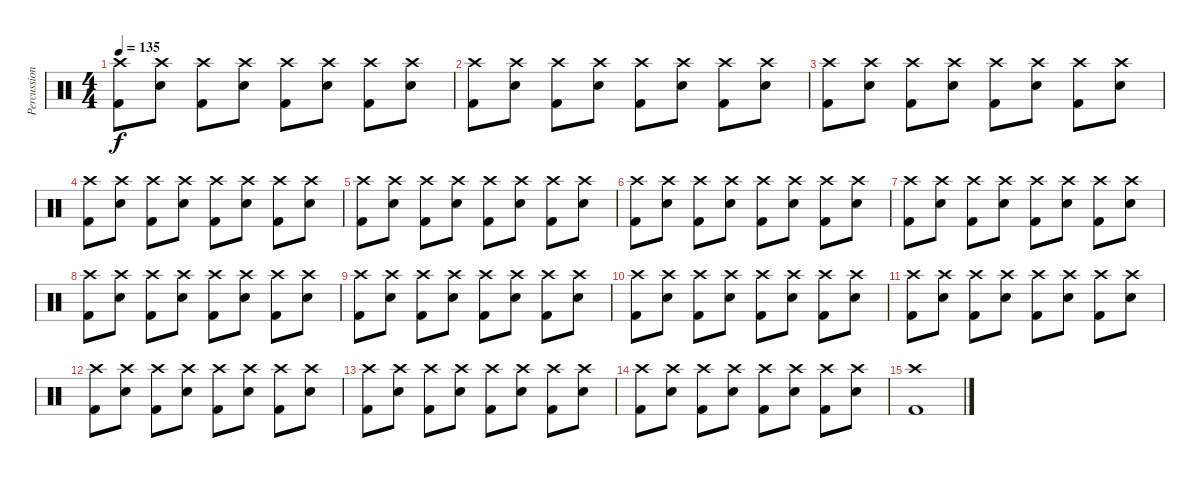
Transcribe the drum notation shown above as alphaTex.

\track ("Percussion" "Percussion") {instrument percussion}
\staff {score}
\articulation defaults
\ts (4 4)
\tempo 135
\clef neutral
\ks c
("Crash high (hit)" "Kick (hit) 2").8{dy f} ("Crash high (hit)" "Electric Snare (hit)").8 ("Crash high (hit)" "Kick (hit) 2").8 ("Crash high (hit)" "Electric Snare (hit)").8 ("Crash high (hit)" "Kick (hit) 2").8 ("Crash high (hit)" "Electric Snare (hit)").8 ("Crash high (hit)" "Kick (hit) 2").8 ("Crash high (hit)" "Electric Snare (hit)").8 |
("Crash high (hit)" "Kick (hit) 2").8 ("Crash high (hit)" "Electric Snare (hit)").8 ("Crash high (hit)" "Kick (hit) 2").8 ("Crash high (hit)" "Electric Snare (hit)").8 ("Crash high (hit)" "Kick (hit) 2").8 ("Crash high (hit)" "Electric Snare (hit)").8 ("Crash high (hit)" "Kick (hit) 2").8 ("Crash high (hit)" "Electric Snare (hit)").8 |
("Crash high (hit)" "Kick (hit) 2").8 ("Crash high (hit)" "Electric Snare (hit)").8 ("Crash high (hit)" "Kick (hit) 2").8 ("Crash high (hit)" "Electric Snare (hit)").8 ("Crash high (hit)" "Kick (hit) 2").8 ("Crash high (hit)" "Electric Snare (hit)").8 ("Crash high (hit)" "Kick (hit) 2").8 ("Crash high (hit)" "Electric Snare (hit)").8 |
("Crash high (hit)" "Kick (hit) 2").8 ("Crash high (hit)" "Electric Snare (hit)").8 ("Crash high (hit)" "Kick (hit) 2").8 ("Crash high (hit)" "Electric Snare (hit)").8 ("Crash high (hit)" "Kick (hit) 2").8 ("Crash high (hit)" "Electric Snare (hit)").8 ("Crash high (hit)" "Kick (hit) 2").8 ("Crash high (hit)" "Electric Snare (hit)").8 |
("Crash high (hit)" "Kick (hit) 2").8 ("Crash high (hit)" "Electric Snare (hit)").8 ("Crash high (hit)" "Kick (hit) 2").8 ("Crash high (hit)" "Electric Snare (hit)").8 ("Crash high (hit)" "Kick (hit) 2").8 ("Crash high (hit)" "Electric Snare (hit)").8 ("Crash high (hit)" "Kick (hit) 2").8 ("Crash high (hit)" "Electric Snare (hit)").8 |
("Crash high (hit)" "Kick (hit) 2").8 ("Crash high (hit)" "Electric Snare (hit)").8 ("Crash high (hit)" "Kick (hit) 2").8 ("Crash high (hit)" "Electric Snare (hit)").8 ("Crash high (hit)" "Kick (hit) 2").8 ("Crash high (hit)" "Electric Snare (hit)").8 ("Crash high (hit)" "Kick (hit) 2").8 ("Crash high (hit)" "Electric Snare (hit)").8 |
("Crash high (hit)" "Kick (hit) 2").8 ("Crash high (hit)" "Electric Snare (hit)").8 ("Crash high (hit)" "Kick (hit) 2").8 ("Crash high (hit)" "Electric Snare (hit)").8 ("Crash high (hit)" "Kick (hit) 2").8 ("Crash high (hit)" "Electric Snare (hit)").8 ("Crash high (hit)" "Kick (hit) 2").8 ("Crash high (hit)" "Electric Snare (hit)").8 |
("Crash high (hit)" "Kick (hit) 2").8 ("Crash high (hit)" "Electric Snare (hit)").8 ("Crash high (hit)" "Kick (hit) 2").8 ("Crash high (hit)" "Electric Snare (hit)").8 ("Crash high (hit)" "Kick (hit) 2").8 ("Crash high (hit)" "Electric Snare (hit)").8 ("Crash high (hit)" "Kick (hit) 2").8 ("Crash high (hit)" "Electric Snare (hit)").8 |
("Crash high (hit)" "Kick (hit) 2").8 ("Crash high (hit)" "Electric Snare (hit)").8 ("Crash high (hit)" "Kick (hit) 2").8 ("Crash high (hit)" "Electric Snare (hit)").8 ("Crash high (hit)" "Kick (hit) 2").8 ("Crash high (hit)" "Electric Snare (hit)").8 ("Crash high (hit)" "Kick (hit) 2").8 ("Crash high (hit)" "Electric Snare (hit)").8 |
("Crash high (hit)" "Kick (hit) 2").8 ("Crash high (hit)" "Electric Snare (hit)").8 ("Crash high (hit)" "Kick (hit) 2").8 ("Crash high (hit)" "Electric Snare (hit)").8 ("Crash high (hit)" "Kick (hit) 2").8 ("Crash high (hit)" "Electric Snare (hit)").8 ("Crash high (hit)" "Kick (hit) 2").8 ("Crash high (hit)" "Electric Snare (hit)").8 |
("Crash high (hit)" "Kick (hit) 2").8 ("Crash high (hit)" "Electric Snare (hit)").8 ("Crash high (hit)" "Kick (hit) 2").8 ("Crash high (hit)" "Electric Snare (hit)").8 ("Crash high (hit)" "Kick (hit) 2").8 ("Crash high (hit)" "Electric Snare (hit)").8 ("Crash high (hit)" "Kick (hit) 2").8 ("Crash high (hit)" "Electric Snare (hit)").8 |
("Crash high (hit)" "Kick (hit) 2").8 ("Crash high (hit)" "Electric Snare (hit)").8 ("Crash high (hit)" "Kick (hit) 2").8 ("Crash high (hit)" "Electric Snare (hit)").8 ("Crash high (hit)" "Kick (hit) 2").8 ("Crash high (hit)" "Electric Snare (hit)").8 ("Crash high (hit)" "Kick (hit) 2").8 ("Crash high (hit)" "Electric Snare (hit)").8 |
("Crash high (hit)" "Kick (hit) 2").8 ("Crash high (hit)" "Electric Snare (hit)").8 ("Crash high (hit)" "Kick (hit) 2").8 ("Crash high (hit)" "Electric Snare (hit)").8 ("Crash high (hit)" "Kick (hit) 2").8 ("Crash high (hit)" "Electric Snare (hit)").8 ("Crash high (hit)" "Kick (hit) 2").8 ("Crash high (hit)" "Electric Snare (hit)").8 |
("Crash high (hit)" "Kick (hit) 2").8 ("Crash high (hit)" "Electric Snare (hit)").8 ("Crash high (hit)" "Kick (hit) 2").8 ("Crash high (hit)" "Electric Snare (hit)").8 ("Crash high (hit)" "Kick (hit) 2").8 ("Crash high (hit)" "Electric Snare (hit)").8 ("Crash high (hit)" "Kick (hit) 2").8 ("Crash high (hit)" "Electric Snare (hit)").8 |
("Crash high (hit)" "Kick (hit) 2").1
